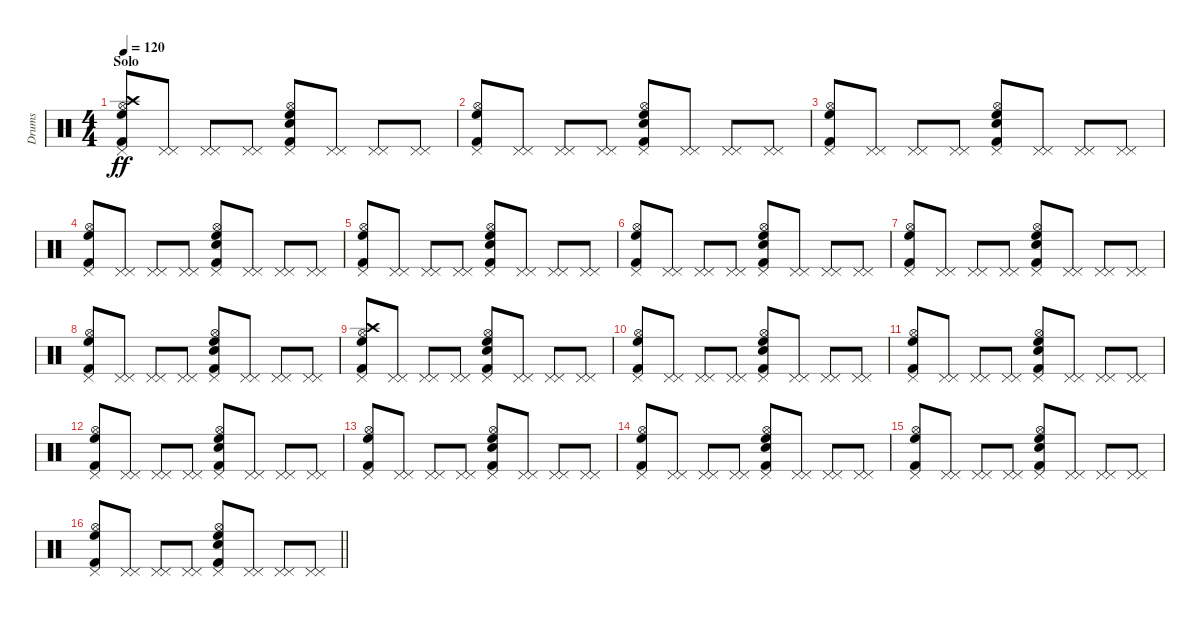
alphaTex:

\track ("Drums" "Drums") {instrument percussion}
\staff {score}
\articulation defaults
\ts (4 4)
\section ("" "Solo")
\tempo 120
\clef neutral
\ks c
("High Floor Tom (hit)" "Hi-Hat (open)" "Crash high (hit)" "Pedal Hi-Hat (hit)" "Kick (hit) 2").8{dy ff} ("Pedal Hi-Hat (hit)" "Pedal Hi-Hat (hit)").8 ("Pedal Hi-Hat (hit)" "Pedal Hi-Hat (hit)").8 ("Pedal Hi-Hat (hit)" "Pedal Hi-Hat (hit)").8 ("High Floor Tom (hit)" "Hi-Hat (open)" "Electric Snare (hit)" "Pedal Hi-Hat (hit)" "Kick (hit) 2").8 ("Pedal Hi-Hat (hit)" "Pedal Hi-Hat (hit)").8 ("Pedal Hi-Hat (hit)" "Pedal Hi-Hat (hit)").8 ("Pedal Hi-Hat (hit)" "Pedal Hi-Hat (hit)").8 |
("High Floor Tom (hit)" "Hi-Hat (open)" "Pedal Hi-Hat (hit)" "Kick (hit) 2").8 ("Pedal Hi-Hat (hit)" "Pedal Hi-Hat (hit)").8 ("Pedal Hi-Hat (hit)" "Pedal Hi-Hat (hit)").8 ("Pedal Hi-Hat (hit)" "Pedal Hi-Hat (hit)").8 ("High Floor Tom (hit)" "Hi-Hat (open)" "Electric Snare (hit)" "Pedal Hi-Hat (hit)" "Kick (hit) 2").8 ("Pedal Hi-Hat (hit)" "Pedal Hi-Hat (hit)").8 ("Pedal Hi-Hat (hit)" "Pedal Hi-Hat (hit)").8 ("Pedal Hi-Hat (hit)" "Pedal Hi-Hat (hit)").8 |
("High Floor Tom (hit)" "Hi-Hat (open)" "Pedal Hi-Hat (hit)" "Kick (hit) 2").8 ("Pedal Hi-Hat (hit)" "Pedal Hi-Hat (hit)").8 ("Pedal Hi-Hat (hit)" "Pedal Hi-Hat (hit)").8 ("Pedal Hi-Hat (hit)" "Pedal Hi-Hat (hit)").8 ("High Floor Tom (hit)" "Hi-Hat (open)" "Electric Snare (hit)" "Pedal Hi-Hat (hit)" "Kick (hit) 2").8 ("Pedal Hi-Hat (hit)" "Pedal Hi-Hat (hit)").8 ("Pedal Hi-Hat (hit)" "Pedal Hi-Hat (hit)").8 ("Pedal Hi-Hat (hit)" "Pedal Hi-Hat (hit)").8 |
("High Floor Tom (hit)" "Hi-Hat (open)" "Pedal Hi-Hat (hit)" "Kick (hit) 2").8 ("Pedal Hi-Hat (hit)" "Pedal Hi-Hat (hit)").8 ("Pedal Hi-Hat (hit)" "Pedal Hi-Hat (hit)").8 ("Pedal Hi-Hat (hit)" "Pedal Hi-Hat (hit)").8 ("High Floor Tom (hit)" "Hi-Hat (open)" "Electric Snare (hit)" "Pedal Hi-Hat (hit)" "Kick (hit) 2").8 ("Pedal Hi-Hat (hit)" "Pedal Hi-Hat (hit)").8 ("Pedal Hi-Hat (hit)" "Pedal Hi-Hat (hit)").8 ("Pedal Hi-Hat (hit)" "Pedal Hi-Hat (hit)").8 |
("High Floor Tom (hit)" "Hi-Hat (open)" "Pedal Hi-Hat (hit)" "Kick (hit) 2").8 ("Pedal Hi-Hat (hit)" "Pedal Hi-Hat (hit)").8 ("Pedal Hi-Hat (hit)" "Pedal Hi-Hat (hit)").8 ("Pedal Hi-Hat (hit)" "Pedal Hi-Hat (hit)").8 ("High Floor Tom (hit)" "Hi-Hat (open)" "Electric Snare (hit)" "Pedal Hi-Hat (hit)" "Kick (hit) 2").8 ("Pedal Hi-Hat (hit)" "Pedal Hi-Hat (hit)").8 ("Pedal Hi-Hat (hit)" "Pedal Hi-Hat (hit)").8 ("Pedal Hi-Hat (hit)" "Pedal Hi-Hat (hit)").8 |
("High Floor Tom (hit)" "Hi-Hat (open)" "Pedal Hi-Hat (hit)" "Kick (hit) 2").8 ("Pedal Hi-Hat (hit)" "Pedal Hi-Hat (hit)").8 ("Pedal Hi-Hat (hit)" "Pedal Hi-Hat (hit)").8 ("Pedal Hi-Hat (hit)" "Pedal Hi-Hat (hit)").8 ("High Floor Tom (hit)" "Hi-Hat (open)" "Electric Snare (hit)" "Pedal Hi-Hat (hit)" "Kick (hit) 2").8 ("Pedal Hi-Hat (hit)" "Pedal Hi-Hat (hit)").8 ("Pedal Hi-Hat (hit)" "Pedal Hi-Hat (hit)").8 ("Pedal Hi-Hat (hit)" "Pedal Hi-Hat (hit)").8 |
("High Floor Tom (hit)" "Hi-Hat (open)" "Pedal Hi-Hat (hit)" "Kick (hit) 2").8 ("Pedal Hi-Hat (hit)" "Pedal Hi-Hat (hit)").8 ("Pedal Hi-Hat (hit)" "Pedal Hi-Hat (hit)").8 ("Pedal Hi-Hat (hit)" "Pedal Hi-Hat (hit)").8 ("High Floor Tom (hit)" "Hi-Hat (open)" "Electric Snare (hit)" "Pedal Hi-Hat (hit)" "Kick (hit) 2").8 ("Pedal Hi-Hat (hit)" "Pedal Hi-Hat (hit)").8 ("Pedal Hi-Hat (hit)" "Pedal Hi-Hat (hit)").8 ("Pedal Hi-Hat (hit)" "Pedal Hi-Hat (hit)").8 |
("High Floor Tom (hit)" "Hi-Hat (open)" "Pedal Hi-Hat (hit)" "Kick (hit) 2").8 ("Pedal Hi-Hat (hit)" "Pedal Hi-Hat (hit)").8 ("Pedal Hi-Hat (hit)" "Pedal Hi-Hat (hit)").8 ("Pedal Hi-Hat (hit)" "Pedal Hi-Hat (hit)").8 ("High Floor Tom (hit)" "Hi-Hat (open)" "Electric Snare (hit)" "Pedal Hi-Hat (hit)" "Kick (hit) 2").8 ("Pedal Hi-Hat (hit)" "Pedal Hi-Hat (hit)").8 ("Pedal Hi-Hat (hit)" "Pedal Hi-Hat (hit)").8 ("Pedal Hi-Hat (hit)" "Pedal Hi-Hat (hit)").8 |
("High Floor Tom (hit)" "Hi-Hat (open)" "Crash high (hit)" "Pedal Hi-Hat (hit)" "Kick (hit) 2").8 ("Pedal Hi-Hat (hit)" "Pedal Hi-Hat (hit)").8 ("Pedal Hi-Hat (hit)" "Pedal Hi-Hat (hit)").8 ("Pedal Hi-Hat (hit)" "Pedal Hi-Hat (hit)").8 ("High Floor Tom (hit)" "Hi-Hat (open)" "Electric Snare (hit)" "Pedal Hi-Hat (hit)" "Kick (hit) 2").8 ("Pedal Hi-Hat (hit)" "Pedal Hi-Hat (hit)").8 ("Pedal Hi-Hat (hit)" "Pedal Hi-Hat (hit)").8 ("Pedal Hi-Hat (hit)" "Pedal Hi-Hat (hit)").8 |
("High Floor Tom (hit)" "Hi-Hat (open)" "Pedal Hi-Hat (hit)" "Kick (hit) 2").8 ("Pedal Hi-Hat (hit)" "Pedal Hi-Hat (hit)").8 ("Pedal Hi-Hat (hit)" "Pedal Hi-Hat (hit)").8 ("Pedal Hi-Hat (hit)" "Pedal Hi-Hat (hit)").8 ("High Floor Tom (hit)" "Hi-Hat (open)" "Electric Snare (hit)" "Pedal Hi-Hat (hit)" "Kick (hit) 2").8 ("Pedal Hi-Hat (hit)" "Pedal Hi-Hat (hit)").8 ("Pedal Hi-Hat (hit)" "Pedal Hi-Hat (hit)").8 ("Pedal Hi-Hat (hit)" "Pedal Hi-Hat (hit)").8 |
("High Floor Tom (hit)" "Hi-Hat (open)" "Pedal Hi-Hat (hit)" "Kick (hit) 2").8 ("Pedal Hi-Hat (hit)" "Pedal Hi-Hat (hit)").8 ("Pedal Hi-Hat (hit)" "Pedal Hi-Hat (hit)").8 ("Pedal Hi-Hat (hit)" "Pedal Hi-Hat (hit)").8 ("High Floor Tom (hit)" "Hi-Hat (open)" "Electric Snare (hit)" "Pedal Hi-Hat (hit)" "Kick (hit) 2").8 ("Pedal Hi-Hat (hit)" "Pedal Hi-Hat (hit)").8 ("Pedal Hi-Hat (hit)" "Pedal Hi-Hat (hit)").8 ("Pedal Hi-Hat (hit)" "Pedal Hi-Hat (hit)").8 |
("High Floor Tom (hit)" "Hi-Hat (open)" "Pedal Hi-Hat (hit)" "Kick (hit) 2").8 ("Pedal Hi-Hat (hit)" "Pedal Hi-Hat (hit)").8 ("Pedal Hi-Hat (hit)" "Pedal Hi-Hat (hit)").8 ("Pedal Hi-Hat (hit)" "Pedal Hi-Hat (hit)").8 ("High Floor Tom (hit)" "Hi-Hat (open)" "Electric Snare (hit)" "Pedal Hi-Hat (hit)" "Kick (hit) 2").8 ("Pedal Hi-Hat (hit)" "Pedal Hi-Hat (hit)").8 ("Pedal Hi-Hat (hit)" "Pedal Hi-Hat (hit)").8 ("Pedal Hi-Hat (hit)" "Pedal Hi-Hat (hit)").8 |
("High Floor Tom (hit)" "Hi-Hat (open)" "Pedal Hi-Hat (hit)" "Kick (hit) 2").8 ("Pedal Hi-Hat (hit)" "Pedal Hi-Hat (hit)").8 ("Pedal Hi-Hat (hit)" "Pedal Hi-Hat (hit)").8 ("Pedal Hi-Hat (hit)" "Pedal Hi-Hat (hit)").8 ("High Floor Tom (hit)" "Hi-Hat (open)" "Electric Snare (hit)" "Pedal Hi-Hat (hit)" "Kick (hit) 2").8 ("Pedal Hi-Hat (hit)" "Pedal Hi-Hat (hit)").8 ("Pedal Hi-Hat (hit)" "Pedal Hi-Hat (hit)").8 ("Pedal Hi-Hat (hit)" "Pedal Hi-Hat (hit)").8 |
("High Floor Tom (hit)" "Hi-Hat (open)" "Pedal Hi-Hat (hit)" "Kick (hit) 2").8 ("Pedal Hi-Hat (hit)" "Pedal Hi-Hat (hit)").8 ("Pedal Hi-Hat (hit)" "Pedal Hi-Hat (hit)").8 ("Pedal Hi-Hat (hit)" "Pedal Hi-Hat (hit)").8 ("High Floor Tom (hit)" "Hi-Hat (open)" "Electric Snare (hit)" "Pedal Hi-Hat (hit)" "Kick (hit) 2").8 ("Pedal Hi-Hat (hit)" "Pedal Hi-Hat (hit)").8 ("Pedal Hi-Hat (hit)" "Pedal Hi-Hat (hit)").8 ("Pedal Hi-Hat (hit)" "Pedal Hi-Hat (hit)").8 |
("High Floor Tom (hit)" "Hi-Hat (open)" "Pedal Hi-Hat (hit)" "Kick (hit) 2").8 ("Pedal Hi-Hat (hit)" "Pedal Hi-Hat (hit)").8 ("Pedal Hi-Hat (hit)" "Pedal Hi-Hat (hit)").8 ("Pedal Hi-Hat (hit)" "Pedal Hi-Hat (hit)").8 ("High Floor Tom (hit)" "Hi-Hat (open)" "Electric Snare (hit)" "Pedal Hi-Hat (hit)" "Kick (hit) 2").8 ("Pedal Hi-Hat (hit)" "Pedal Hi-Hat (hit)").8 ("Pedal Hi-Hat (hit)" "Pedal Hi-Hat (hit)").8 ("Pedal Hi-Hat (hit)" "Pedal Hi-Hat (hit)").8 |
\barLineRight lightlight
("High Floor Tom (hit)" "Hi-Hat (open)" "Pedal Hi-Hat (hit)" "Kick (hit) 2").8 ("Pedal Hi-Hat (hit)" "Pedal Hi-Hat (hit)").8 ("Pedal Hi-Hat (hit)" "Pedal Hi-Hat (hit)").8 ("Pedal Hi-Hat (hit)" "Pedal Hi-Hat (hit)").8 ("High Floor Tom (hit)" "Hi-Hat (open)" "Electric Snare (hit)" "Pedal Hi-Hat (hit)" "Kick (hit) 2").8 ("Pedal Hi-Hat (hit)" "Pedal Hi-Hat (hit)").8 ("Pedal Hi-Hat (hit)" "Pedal Hi-Hat (hit)").8 ("Pedal Hi-Hat (hit)" "Pedal Hi-Hat (hit)").8
